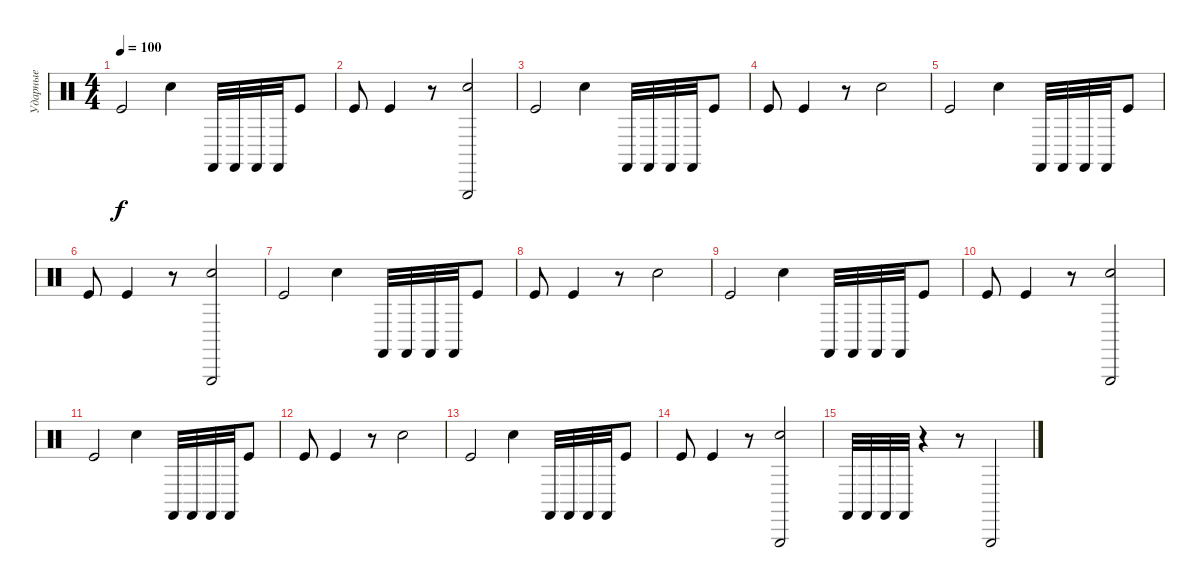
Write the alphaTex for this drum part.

\track ("Ударные" "Ударные") {instrument percussion}
\staff {score}
\articulation defaults
\ts (4 4)
\tempo 100
\clef neutral
\ks c "Kick (hit)".2{dy f} "Snare (hit) 2".4 "Castanets (hit)".32 "Castanets (hit)".32 "Castanets (hit)".32 "Castanets (hit)".32 "Kick (hit)".8
|
"Kick (hit)".8 "Kick (hit)".4 r.8 ("Snare (hit) 2" "Triangle (hit)").2 |
"Kick (hit)".2 "Snare (hit) 2".4 "Castanets (hit)".32 "Castanets (hit)".32 "Castanets (hit)".32 "Castanets (hit)".32 "Kick (hit)".8 |
"Kick (hit)".8 "Kick (hit)".4 r.8 "Snare (hit) 2".2 |
"Kick (hit)".2 "Snare (hit) 2".4 "Castanets (hit)".32 "Castanets (hit)".32 "Castanets (hit)".32 "Castanets (hit)".32 "Kick (hit)".8 |
"Kick (hit)".8 "Kick (hit)".4 r.8 ("Snare (hit) 2" "Triangle (hit)").2 |
"Kick (hit)".2 "Snare (hit) 2".4 "Castanets (hit)".32 "Castanets (hit)".32 "Castanets (hit)".32 "Castanets (hit)".32 "Kick (hit)".8 |
"Kick (hit)".8 "Kick (hit)".4 r.8 "Snare (hit) 2".2 |
"Kick (hit)".2 "Snare (hit) 2".4 "Castanets (hit)".32 "Castanets (hit)".32 "Castanets (hit)".32 "Castanets (hit)".32 "Kick (hit)".8 |
"Kick (hit)".8 "Kick (hit)".4 r.8 ("Snare (hit) 2" "Triangle (hit)").2 |
"Kick (hit)".2 "Snare (hit) 2".4 "Castanets (hit)".32 "Castanets (hit)".32 "Castanets (hit)".32 "Castanets (hit)".32 "Kick (hit)".8 |
"Kick (hit)".8 "Kick (hit)".4 r.8 "Snare (hit) 2".2 |
"Kick (hit)".2 "Snare (hit) 2".4 "Castanets (hit)".32 "Castanets (hit)".32 "Castanets (hit)".32 "Castanets (hit)".32 "Kick (hit)".8 |
"Kick (hit)".8 "Kick (hit)".4 r.8 ("Snare (hit) 2" "Triangle (hit)").2 |
"Castanets (hit)".32 "Castanets (hit)".32 "Castanets (hit)".32 "Castanets (hit)".32 r.4 r.8 "Triangle (hit)".2
